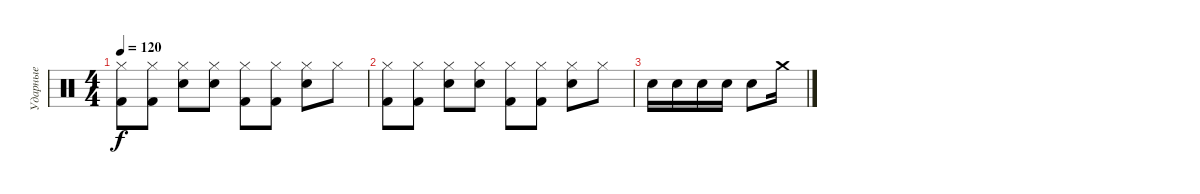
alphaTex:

\track ("Ударные" "Ударные") {instrument percussion}
\staff {score}
\articulation defaults
\ts (4 4)
\tempo 120
\clef neutral
\ks c
("Kick (hit) 2" "Hi-Hat (closed)").8{dy f} ("Kick (hit) 2" "Hi-Hat (closed)").8 ("Snare (hit) 2" "Hi-Hat (closed)").8 ("Snare (hit) 2" "Hi-Hat (closed)").8 ("Kick (hit) 2" "Hi-Hat (closed)").8 ("Kick (hit) 2" "Hi-Hat (closed)").8 ("Snare (hit) 2" "Hi-Hat (closed)").8 "Hi-Hat (closed)".8 |
("Kick (hit) 2" "Hi-Hat (closed)").8 ("Kick (hit) 2" "Hi-Hat (closed)").8 ("Snare (hit) 2" "Hi-Hat (closed)").8 ("Snare (hit) 2" "Hi-Hat (closed)").8 ("Kick (hit) 2" "Hi-Hat (closed)").8 ("Kick (hit) 2" "Hi-Hat (closed)").8 ("Snare (hit) 2" "Hi-Hat (closed)").8 "Hi-Hat (closed)".8 |
"Snare (hit) 2".16 "Snare (hit) 2".16 "Snare (hit) 2".16 "Snare (hit) 2".16 "Snare (hit) 2".8 "Crash medium (hit)".16
